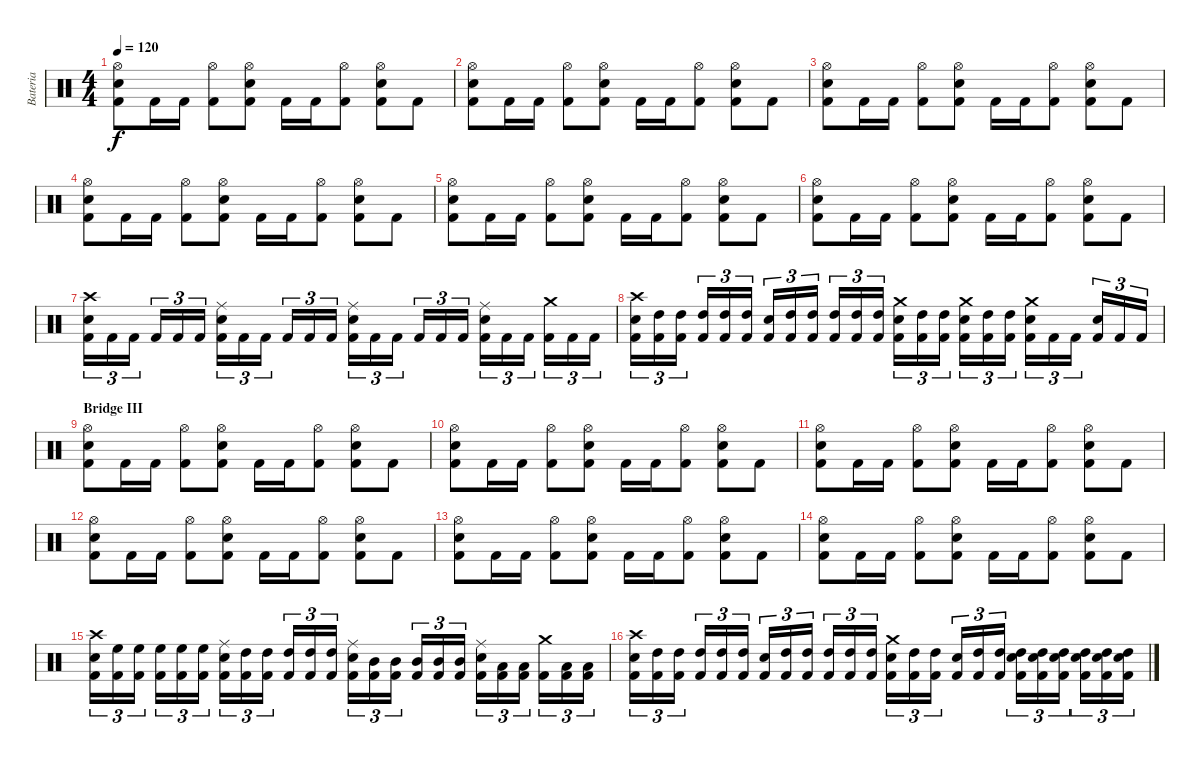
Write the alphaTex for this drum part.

\track ("Bateria" "Bateria") {instrument percussion}
\staff {score}
\articulation defaults
\ts (4 4)
\tempo 120
\clef neutral
\ks c
("Hi-Hat (open)" "Snare (hit) 2" "Kick (hit) 2").8{dy f} "Kick (hit) 2".16 "Kick (hit) 2".16 ("Hi-Hat (open)" "Kick (hit) 2").8 ("Hi-Hat (open)" "Snare (hit) 2" "Kick (hit) 2").8 "Kick (hit) 2".16 "Kick (hit) 2".16 ("Hi-Hat (open)" "Kick (hit) 2").8 ("Hi-Hat (open)" "Snare (hit) 2" "Kick (hit) 2").8 "Kick (hit) 2".8 |
("Hi-Hat (open)" "Snare (hit) 2" "Kick (hit) 2").8 "Kick (hit) 2".16 "Kick (hit) 2".16 ("Hi-Hat (open)" "Kick (hit) 2").8 ("Hi-Hat (open)" "Snare (hit) 2" "Kick (hit) 2").8 "Kick (hit) 2".16 "Kick (hit) 2".16 ("Hi-Hat (open)" "Kick (hit) 2").8 ("Hi-Hat (open)" "Snare (hit) 2" "Kick (hit) 2").8 "Kick (hit) 2".8 |
("Hi-Hat (open)" "Snare (hit) 2" "Kick (hit) 2").8 "Kick (hit) 2".16 "Kick (hit) 2".16 ("Hi-Hat (open)" "Kick (hit) 2").8 ("Hi-Hat (open)" "Snare (hit) 2" "Kick (hit) 2").8 "Kick (hit) 2".16 "Kick (hit) 2".16 ("Hi-Hat (open)" "Kick (hit) 2").8 ("Hi-Hat (open)" "Snare (hit) 2" "Kick (hit) 2").8 "Kick (hit) 2".8 |
("Hi-Hat (open)" "Snare (hit) 2" "Kick (hit) 2").8 "Kick (hit) 2".16 "Kick (hit) 2".16 ("Hi-Hat (open)" "Kick (hit) 2").8 ("Hi-Hat (open)" "Snare (hit) 2" "Kick (hit) 2").8 "Kick (hit) 2".16 "Kick (hit) 2".16 ("Hi-Hat (open)" "Kick (hit) 2").8 ("Hi-Hat (open)" "Snare (hit) 2" "Kick (hit) 2").8 "Kick (hit) 2".8 |
("Hi-Hat (open)" "Snare (hit) 2" "Kick (hit) 2").8 "Kick (hit) 2".16 "Kick (hit) 2".16 ("Hi-Hat (open)" "Kick (hit) 2").8 ("Hi-Hat (open)" "Snare (hit) 2" "Kick (hit) 2").8 "Kick (hit) 2".16 "Kick (hit) 2".16 ("Hi-Hat (open)" "Kick (hit) 2").8 ("Hi-Hat (open)" "Snare (hit) 2" "Kick (hit) 2").8 "Kick (hit) 2".8 |
("Hi-Hat (open)" "Snare (hit) 2" "Kick (hit) 2").8 "Kick (hit) 2".16 "Kick (hit) 2".16 ("Hi-Hat (open)" "Kick (hit) 2").8 ("Hi-Hat (open)" "Snare (hit) 2" "Kick (hit) 2").8 "Kick (hit) 2".16 "Kick (hit) 2".16 ("Hi-Hat (open)" "Kick (hit) 2").8 ("Hi-Hat (open)" "Snare (hit) 2" "Kick (hit) 2").8 "Kick (hit) 2".8 |
("Crash high (hit)" "Snare (hit) 2" "Kick (hit) 2").16{tu (3 2)} "Kick (hit) 2".16{tu (3 2)} "Kick (hit) 2".16{tu (3 2)} "Kick (hit) 2".16{tu (3 2)} "Kick (hit) 2".16{tu (3 2)} "Kick (hit) 2".16{tu (3 2)} ("Ride (middle)" "Snare (hit) 2" "Kick (hit) 2").16{tu (3 2)} "Kick (hit) 2".16{tu (3 2)} "Kick (hit) 2".16{tu (3 2)} "Kick (hit) 2".16{tu (3 2)} "Kick (hit) 2".16{tu (3 2)} "Kick (hit) 2".16{tu (3 2)} ("Ride (middle)" "Snare (hit) 2" "Kick (hit) 2").16{tu (3 2)} "Kick (hit) 2".16{tu (3 2)} "Kick (hit) 2".16{tu (3 2)} "Kick (hit) 2".16{tu (3 2)} "Kick (hit) 2".16{tu (3 2)} "Kick (hit) 2".16{tu (3 2)} ("Ride (middle)" "Snare (hit) 2" "Kick (hit) 2").16{tu (3 2)} "Kick (hit) 2".16{tu (3 2)} "Kick (hit) 2".16{tu (3 2)} ("Crash medium (hit)" "Kick (hit) 2").16{tu (3 2)} "Kick (hit) 2".16{tu (3 2)} "Kick (hit) 2".16{tu (3 2)} |
("Crash high (hit)" "Snare (hit) 2" "Kick (hit) 2").16{tu (3 2)} ("High Tom (hit)" "Kick (hit) 2").16{tu (3 2)} ("High Tom (hit)" "Kick (hit) 2").16{tu (3 2)} ("High Tom (hit)" "Kick (hit) 2").16{tu (3 2)} ("High Tom (hit)" "Kick (hit) 2").16{tu (3 2)} ("High Tom (hit)" "Kick (hit) 2").16{tu (3 2)} ("Snare (hit) 2" "Kick (hit) 2").16{tu (3 2)} ("High Tom (hit)" "Kick (hit) 2").16{tu (3 2)} ("High Tom (hit)" "Kick (hit) 2").16{tu (3 2)} ("High Tom (hit)" "Kick (hit) 2").16{tu (3 2)} ("High Tom (hit)" "Kick (hit) 2").16{tu (3 2)} ("High Tom (hit)" "Kick (hit) 2").16{tu (3 2)} ("Crash medium (hit)" "Snare (hit) 2" "Kick (hit) 2").16{tu (3 2)} ("High Tom (hit)" "Kick (hit) 2").16{tu (3 2)} ("High Tom (hit)" "Kick (hit) 2").16{tu (3 2)} ("Crash medium (hit)" "Snare (hit) 2" "Kick (hit) 2").16{tu (3 2)} ("High Tom (hit)" "Kick (hit) 2").16{tu (3 2)} ("High Tom (hit)" "Kick (hit) 2").16{tu (3 2)} ("Crash medium (hit)" "Snare (hit) 2" "Kick (hit) 2").16{tu (3 2)} "Kick (hit) 2".16{tu (3 2)} "Kick (hit) 2".16{tu (3 2)} ("Snare (hit) 2" "Kick (hit) 2").16{tu (3 2)} "Kick (hit) 2".16{tu (3 2)} "Kick (hit) 2".16{tu (3 2)} |
\section ("" "Bridge III")
("Hi-Hat (open)" "Snare (hit) 2" "Kick (hit) 2").8 "Kick (hit) 2".16 "Kick (hit) 2".16 ("Hi-Hat (open)" "Kick (hit) 2").8 ("Hi-Hat (open)" "Snare (hit) 2" "Kick (hit) 2").8 "Kick (hit) 2".16 "Kick (hit) 2".16 ("Hi-Hat (open)" "Kick (hit) 2").8 ("Hi-Hat (open)" "Snare (hit) 2" "Kick (hit) 2").8 "Kick (hit) 2".8 |
("Hi-Hat (open)" "Snare (hit) 2" "Kick (hit) 2").8 "Kick (hit) 2".16 "Kick (hit) 2".16 ("Hi-Hat (open)" "Kick (hit) 2").8 ("Hi-Hat (open)" "Snare (hit) 2" "Kick (hit) 2").8 "Kick (hit) 2".16 "Kick (hit) 2".16 ("Hi-Hat (open)" "Kick (hit) 2").8 ("Hi-Hat (open)" "Snare (hit) 2" "Kick (hit) 2").8 "Kick (hit) 2".8 |
("Hi-Hat (open)" "Snare (hit) 2" "Kick (hit) 2").8 "Kick (hit) 2".16 "Kick (hit) 2".16 ("Hi-Hat (open)" "Kick (hit) 2").8 ("Hi-Hat (open)" "Snare (hit) 2" "Kick (hit) 2").8 "Kick (hit) 2".16 "Kick (hit) 2".16 ("Hi-Hat (open)" "Kick (hit) 2").8 ("Hi-Hat (open)" "Snare (hit) 2" "Kick (hit) 2").8 "Kick (hit) 2".8 |
("Hi-Hat (open)" "Snare (hit) 2" "Kick (hit) 2").8 "Kick (hit) 2".16 "Kick (hit) 2".16 ("Hi-Hat (open)" "Kick (hit) 2").8 ("Hi-Hat (open)" "Snare (hit) 2" "Kick (hit) 2").8 "Kick (hit) 2".16 "Kick (hit) 2".16 ("Hi-Hat (open)" "Kick (hit) 2").8 ("Hi-Hat (open)" "Snare (hit) 2" "Kick (hit) 2").8 "Kick (hit) 2".8 |
("Hi-Hat (open)" "Snare (hit) 2" "Kick (hit) 2").8 "Kick (hit) 2".16 "Kick (hit) 2".16 ("Hi-Hat (open)" "Kick (hit) 2").8 ("Hi-Hat (open)" "Snare (hit) 2" "Kick (hit) 2").8 "Kick (hit) 2".16 "Kick (hit) 2".16 ("Hi-Hat (open)" "Kick (hit) 2").8 ("Hi-Hat (open)" "Snare (hit) 2" "Kick (hit) 2").8 "Kick (hit) 2".8 |
("Hi-Hat (open)" "Snare (hit) 2" "Kick (hit) 2").8 "Kick (hit) 2".16 "Kick (hit) 2".16 ("Hi-Hat (open)" "Kick (hit) 2").8 ("Hi-Hat (open)" "Snare (hit) 2" "Kick (hit) 2").8 "Kick (hit) 2".16 "Kick (hit) 2".16 ("Hi-Hat (open)" "Kick (hit) 2").8 ("Hi-Hat (open)" "Snare (hit) 2" "Kick (hit) 2").8 "Kick (hit) 2".8 |
("Crash high (hit)" "Snare (hit) 2" "Kick (hit) 2").16{tu (3 2)} ("High Floor Tom (hit)" "Kick (hit) 2").16{tu (3 2)} ("High Floor Tom (hit)" "Kick (hit) 2").16{tu (3 2)} ("High Floor Tom (hit)" "Kick (hit) 2").16{tu (3 2)} ("High Floor Tom (hit)" "Kick (hit) 2").16{tu (3 2)} ("High Floor Tom (hit)" "Kick (hit) 2").16{tu (3 2)} ("Ride (middle)" "Snare (hit) 2" "Kick (hit) 2").16{tu (3 2)} ("High Tom (hit)" "Kick (hit) 2").16{tu (3 2)} ("High Tom (hit)" "Kick (hit) 2").16{tu (3 2)} ("High Tom (hit)" "Kick (hit) 2").16{tu (3 2)} ("High Tom (hit)" "Kick (hit) 2").16{tu (3 2)} ("High Tom (hit)" "Kick (hit) 2").16{tu (3 2)} ("Ride (middle)" "Snare (hit) 2" "Kick (hit) 2").16{tu (3 2)} ("Mid Tom (hit)" "Kick (hit) 2").16{tu (3 2)} ("Mid Tom (hit)" "Kick (hit) 2").16{tu (3 2)} ("Mid Tom (hit)" "Kick (hit) 2").16{tu (3 2)} ("Mid Tom (hit)" "Kick (hit) 2").16{tu (3 2)} ("Mid Tom (hit)" "Kick (hit) 2").16{tu (3 2)} ("Ride (middle)" "Snare (hit) 2" "Kick (hit) 2").16{tu (3 2)} ("Low Tom (hit)" "Kick (hit) 2").16{tu (3 2)} ("Low Tom (hit)" "Kick (hit) 2").16{tu (3 2)} ("Crash medium (hit)" "Kick (hit) 2").16{tu (3 2)} ("Low Tom (hit)" "Kick (hit) 2").16{tu (3 2)} ("Low Tom (hit)" "Kick (hit) 2").16{tu (3 2)} |
("Crash high (hit)" "Snare (hit) 2" "Kick (hit) 2").16{tu (3 2)} ("High Tom (hit)" "Kick (hit) 2").16{tu (3 2)} ("High Tom (hit)" "Kick (hit) 2").16{tu (3 2)} ("High Tom (hit)" "Kick (hit) 2").16{tu (3 2)} ("High Tom (hit)" "Kick (hit) 2").16{tu (3 2)} ("High Tom (hit)" "Kick (hit) 2").16{tu (3 2)} ("Snare (hit) 2" "Kick (hit) 2").16{tu (3 2)} ("High Tom (hit)" "Kick (hit) 2").16{tu (3 2)} ("High Tom (hit)" "Kick (hit) 2").16{tu (3 2)} ("High Tom (hit)" "Kick (hit) 2").16{tu (3 2)} ("High Tom (hit)" "Kick (hit) 2").16{tu (3 2)} ("High Tom (hit)" "Kick (hit) 2").16{tu (3 2)} ("Crash medium (hit)" "Snare (hit) 2" "Kick (hit) 2").16{tu (3 2)} ("High Tom (hit)" "Kick (hit) 2").16{tu (3 2)} ("High Tom (hit)" "Kick (hit) 2").16{tu (3 2)} ("Snare (hit) 2" "Kick (hit) 2").16{tu (3 2)} ("High Tom (hit)" "Kick (hit) 2").16{tu (3 2)} ("High Tom (hit)" "Kick (hit) 2").16{tu (3 2)} ("High Tom (hit)" "Snare (hit) 2" "Kick (hit) 2").16{tu (3 2)} ("High Tom (hit)" "Snare (hit) 2" "Kick (hit) 2").16{tu (3 2)} ("High Tom (hit)" "Snare (hit) 2" "Kick (hit) 2").16{tu (3 2)} ("High Tom (hit)" "Snare (hit) 2" "Kick (hit) 2").16{tu (3 2)} ("High Tom (hit)" "Snare (hit) 2" "Kick (hit) 2").16{tu (3 2)} ("High Tom (hit)" "Snare (hit) 2" "Kick (hit) 2").16{tu (3 2)}
